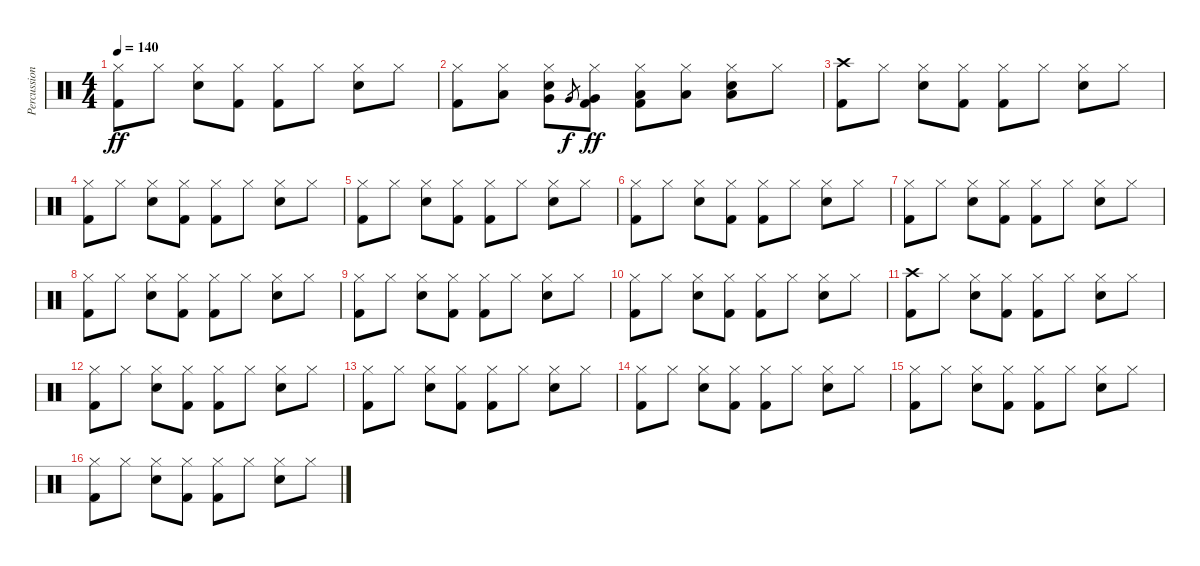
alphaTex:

\track ("Percussion" "Percussion") {instrument percussion}
\staff {score}
\articulation defaults
\ts (4 4)
\tempo 140
\clef neutral
\ks c
("Hi-Hat (closed)" "Kick (hit) 2").8{dy ff} "Hi-Hat (closed)".8 ("Hi-Hat (closed)" "Snare (hit) 2").8 ("Hi-Hat (closed)" "Kick (hit) 2").8 ("Hi-Hat (closed)" "Kick (hit) 2").8 "Hi-Hat (closed)".8 ("Hi-Hat (closed)" "Snare (hit) 2").8 "Hi-Hat (closed)".8 |
("Hi-Hat (closed)" "Kick (hit) 2").8 ("Hi-Hat (closed)" "Low Tom (hit)").8 ("Hi-Hat (closed)" "Snare (hit) 2" "Very Low Tom (hit)").8 "Very Low Tom (hit)".8{gr dy f} ("Hi-Hat (closed)" "Kick (hit) 2" "Very Low Tom (hit)").8{dy ff} ("Hi-Hat (closed)" "Kick (hit) 2" "Low Floor Tom (hit)").8 ("Hi-Hat (closed)" "Low Floor Tom (hit)").8 ("Hi-Hat (closed)" "Snare (hit) 2" "Low Floor Tom (hit)").8 "Hi-Hat (closed)".8 |
("Crash high (hit)" "Kick (hit) 2").8 "Hi-Hat (closed)".8 ("Hi-Hat (closed)" "Snare (hit) 2").8 ("Hi-Hat (closed)" "Kick (hit) 2").8 ("Hi-Hat (closed)" "Kick (hit) 2").8 "Hi-Hat (closed)".8 ("Hi-Hat (closed)" "Snare (hit) 2").8 "Hi-Hat (closed)".8 |
("Hi-Hat (closed)" "Kick (hit) 2").8 "Hi-Hat (closed)".8 ("Hi-Hat (closed)" "Snare (hit) 2").8 ("Hi-Hat (closed)" "Kick (hit) 2").8 ("Hi-Hat (closed)" "Kick (hit) 2").8 "Hi-Hat (closed)".8 ("Hi-Hat (closed)" "Snare (hit) 2").8 "Hi-Hat (closed)".8 |
("Hi-Hat (closed)" "Kick (hit) 2").8 "Hi-Hat (closed)".8 ("Hi-Hat (closed)" "Snare (hit) 2").8 ("Hi-Hat (closed)" "Kick (hit) 2").8 ("Hi-Hat (closed)" "Kick (hit) 2").8 "Hi-Hat (closed)".8 ("Hi-Hat (closed)" "Snare (hit) 2").8 "Hi-Hat (closed)".8 |
("Hi-Hat (closed)" "Kick (hit) 2").8 "Hi-Hat (closed)".8 ("Hi-Hat (closed)" "Snare (hit) 2").8 ("Hi-Hat (closed)" "Kick (hit) 2").8 ("Hi-Hat (closed)" "Kick (hit) 2").8 "Hi-Hat (closed)".8 ("Hi-Hat (closed)" "Snare (hit) 2").8 "Hi-Hat (closed)".8 |
("Hi-Hat (closed)" "Kick (hit) 2").8 "Hi-Hat (closed)".8 ("Hi-Hat (closed)" "Snare (hit) 2").8 ("Hi-Hat (closed)" "Kick (hit) 2").8 ("Hi-Hat (closed)" "Kick (hit) 2").8 "Hi-Hat (closed)".8 ("Hi-Hat (closed)" "Snare (hit) 2").8 "Hi-Hat (closed)".8 |
("Hi-Hat (closed)" "Kick (hit) 2").8 "Hi-Hat (closed)".8 ("Hi-Hat (closed)" "Snare (hit) 2").8 ("Hi-Hat (closed)" "Kick (hit) 2").8 ("Hi-Hat (closed)" "Kick (hit) 2").8 "Hi-Hat (closed)".8 ("Hi-Hat (closed)" "Snare (hit) 2").8 "Hi-Hat (closed)".8 |
("Hi-Hat (closed)" "Kick (hit) 2").8 "Hi-Hat (closed)".8 ("Hi-Hat (closed)" "Snare (hit) 2").8 ("Hi-Hat (closed)" "Kick (hit) 2").8 ("Hi-Hat (closed)" "Kick (hit) 2").8 "Hi-Hat (closed)".8 ("Hi-Hat (closed)" "Snare (hit) 2").8 "Hi-Hat (closed)".8 |
("Hi-Hat (closed)" "Kick (hit) 2").8 "Hi-Hat (closed)".8 ("Hi-Hat (closed)" "Snare (hit) 2").8 ("Hi-Hat (closed)" "Kick (hit) 2").8 ("Hi-Hat (closed)" "Kick (hit) 2").8 "Hi-Hat (closed)".8 ("Hi-Hat (closed)" "Snare (hit) 2").8 "Hi-Hat (closed)".8 |
("Crash high (hit)" "Kick (hit) 2").8 "Hi-Hat (closed)".8 ("Hi-Hat (closed)" "Snare (hit) 2").8 ("Hi-Hat (closed)" "Kick (hit) 2").8 ("Hi-Hat (closed)" "Kick (hit) 2").8 "Hi-Hat (closed)".8 ("Hi-Hat (closed)" "Snare (hit) 2").8 "Hi-Hat (closed)".8 |
("Hi-Hat (closed)" "Kick (hit) 2").8 "Hi-Hat (closed)".8 ("Hi-Hat (closed)" "Snare (hit) 2").8 ("Hi-Hat (closed)" "Kick (hit) 2").8 ("Hi-Hat (closed)" "Kick (hit) 2").8 "Hi-Hat (closed)".8 ("Hi-Hat (closed)" "Snare (hit) 2").8 "Hi-Hat (closed)".8 |
("Hi-Hat (closed)" "Kick (hit) 2").8 "Hi-Hat (closed)".8 ("Hi-Hat (closed)" "Snare (hit) 2").8 ("Hi-Hat (closed)" "Kick (hit) 2").8 ("Hi-Hat (closed)" "Kick (hit) 2").8 "Hi-Hat (closed)".8 ("Hi-Hat (closed)" "Snare (hit) 2").8 "Hi-Hat (closed)".8 |
("Hi-Hat (closed)" "Kick (hit) 2").8 "Hi-Hat (closed)".8 ("Hi-Hat (closed)" "Snare (hit) 2").8 ("Hi-Hat (closed)" "Kick (hit) 2").8 ("Hi-Hat (closed)" "Kick (hit) 2").8 "Hi-Hat (closed)".8 ("Hi-Hat (closed)" "Snare (hit) 2").8 "Hi-Hat (closed)".8 |
("Hi-Hat (closed)" "Kick (hit) 2").8 "Hi-Hat (closed)".8 ("Hi-Hat (closed)" "Snare (hit) 2").8 ("Hi-Hat (closed)" "Kick (hit) 2").8 ("Hi-Hat (closed)" "Kick (hit) 2").8 "Hi-Hat (closed)".8 ("Hi-Hat (closed)" "Snare (hit) 2").8 "Hi-Hat (closed)".8 |
("Hi-Hat (closed)" "Kick (hit) 2").8 "Hi-Hat (closed)".8 ("Hi-Hat (closed)" "Snare (hit) 2").8 ("Hi-Hat (closed)" "Kick (hit) 2").8 ("Hi-Hat (closed)" "Kick (hit) 2").8 "Hi-Hat (closed)".8 ("Hi-Hat (closed)" "Snare (hit) 2").8 "Hi-Hat (closed)".8
